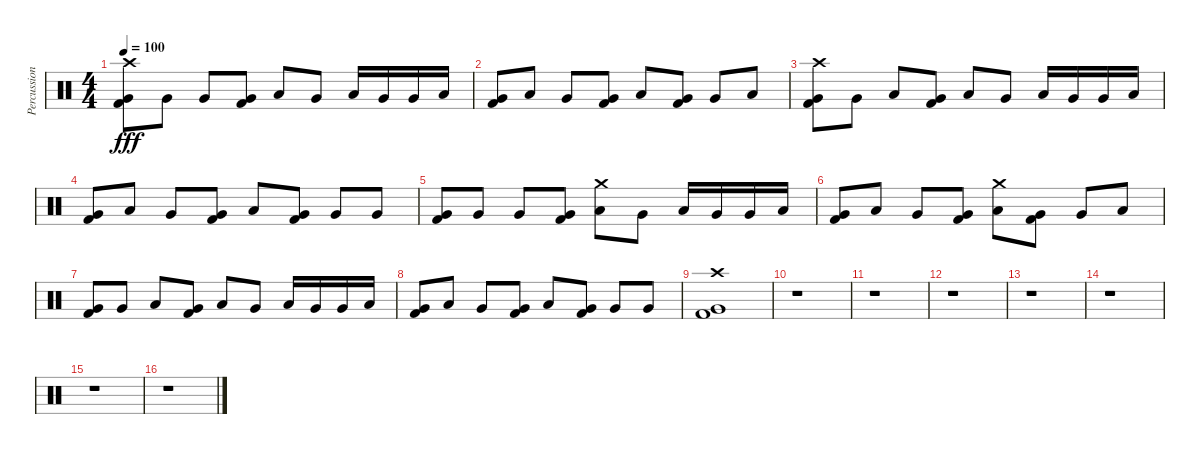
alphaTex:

\track ("Percussion" "Percussion") {instrument percussion}
\staff {score}
\articulation defaults
\ts (4 4)
\tempo 100
\clef neutral
\ks c
("Crash high (hit)" "Very Low Tom (hit)" "Kick (hit) 2").8{dy fff} "Very Low Tom (hit)".8 "Very Low Tom (hit)".8 ("Very Low Tom (hit)" "Kick (hit) 2").8 "Low Floor Tom (hit)".8 "Very Low Tom (hit)".8 "Low Floor Tom (hit)".16 "Very Low Tom (hit)".16 "Very Low Tom (hit)".16 "Low Floor Tom (hit)".16 |
("Very Low Tom (hit)" "Kick (hit) 2").8 "Low Floor Tom (hit)".8 "Very Low Tom (hit)".8 ("Very Low Tom (hit)" "Kick (hit) 2").8 "Low Floor Tom (hit)".8 ("Very Low Tom (hit)" "Kick (hit) 2").8 "Very Low Tom (hit)".8 "Low Floor Tom (hit)".8 |
("Crash high (hit)" "Very Low Tom (hit)" "Kick (hit) 2").8 "Very Low Tom (hit)".8 "Low Floor Tom (hit)".8 ("Very Low Tom (hit)" "Kick (hit) 2").8 "Low Floor Tom (hit)".8 "Very Low Tom (hit)".8 "Low Floor Tom (hit)".16 "Very Low Tom (hit)".16 "Very Low Tom (hit)".16 "Low Floor Tom (hit)".16 |
("Very Low Tom (hit)" "Kick (hit) 2").8 "Low Floor Tom (hit)".8 "Very Low Tom (hit)".8 ("Very Low Tom (hit)" "Kick (hit) 2").8 "Low Floor Tom (hit)".8 ("Very Low Tom (hit)" "Kick (hit) 2").8 "Very Low Tom (hit)".8 "Very Low Tom (hit)".8 |
("Very Low Tom (hit)" "Kick (hit) 2").8 "Very Low Tom (hit)".8 "Very Low Tom (hit)".8 ("Very Low Tom (hit)" "Kick (hit) 2").8 ("Crash medium (hit)" "Low Floor Tom (hit)").8 "Very Low Tom (hit)".8 "Low Floor Tom (hit)".16 "Very Low Tom (hit)".16 "Very Low Tom (hit)".16 "Low Floor Tom (hit)".16 |
("Very Low Tom (hit)" "Kick (hit) 2").8 "Low Floor Tom (hit)".8 "Very Low Tom (hit)".8 ("Very Low Tom (hit)" "Kick (hit) 2").8 ("Crash medium (hit)" "Low Floor Tom (hit)").8 ("Very Low Tom (hit)" "Kick (hit) 2").8 "Very Low Tom (hit)".8 "Low Floor Tom (hit)".8 |
("Very Low Tom (hit)" "Kick (hit) 2").8 "Very Low Tom (hit)".8 "Low Floor Tom (hit)".8 ("Very Low Tom (hit)" "Kick (hit) 2").8 "Low Floor Tom (hit)".8 "Very Low Tom (hit)".8 "Low Floor Tom (hit)".16 "Very Low Tom (hit)".16 "Very Low Tom (hit)".16 "Low Floor Tom (hit)".16 |
("Very Low Tom (hit)" "Kick (hit) 2").8 "Low Floor Tom (hit)".8 "Very Low Tom (hit)".8 ("Very Low Tom (hit)" "Kick (hit) 2").8 "Low Floor Tom (hit)".8 ("Very Low Tom (hit)" "Kick (hit) 2").8 "Very Low Tom (hit)".8 "Very Low Tom (hit)".8 |
("Crash high (hit)" "Very Low Tom (hit)" "Kick (hit) 2").1 |
r.1 |
r.1 |
r.1 |
r.1 |
r.1 |
r.1 |
r.1
